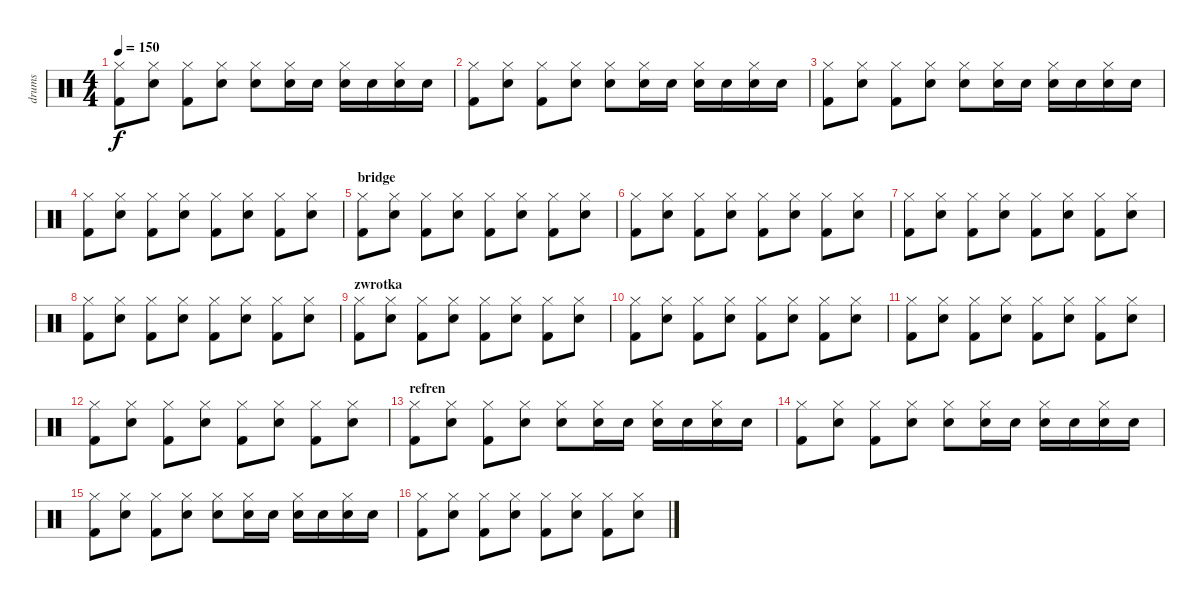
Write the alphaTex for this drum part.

\track ("drums" "drums") {instrument percussion}
\staff {score}
\articulation defaults
\ts (4 4)
\tempo 150
\clef neutral
\ks c
("Hi-Hat (closed)" "Kick (hit) 2").8{dy f} ("Hi-Hat (closed)" "Snare (hit) 2").8 ("Hi-Hat (closed)" "Kick (hit) 2").8 ("Hi-Hat (closed)" "Snare (hit) 2").8 ("Hi-Hat (closed)" "Snare (hit) 2").8 ("Hi-Hat (closed)" "Snare (hit) 2").16 "Snare (hit) 2".16 ("Hi-Hat (closed)" "Snare (hit) 2").16 "Snare (hit) 2".16 ("Hi-Hat (closed)" "Snare (hit) 2").16 "Snare (hit) 2".16 |
("Hi-Hat (closed)" "Kick (hit) 2").8 ("Hi-Hat (closed)" "Snare (hit) 2").8 ("Hi-Hat (closed)" "Kick (hit) 2").8 ("Hi-Hat (closed)" "Snare (hit) 2").8 ("Hi-Hat (closed)" "Snare (hit) 2").8 ("Hi-Hat (closed)" "Snare (hit) 2").16 "Snare (hit) 2".16 ("Hi-Hat (closed)" "Snare (hit) 2").16 "Snare (hit) 2".16 ("Hi-Hat (closed)" "Snare (hit) 2").16 "Snare (hit) 2".16 |
("Hi-Hat (closed)" "Kick (hit) 2").8 ("Hi-Hat (closed)" "Snare (hit) 2").8 ("Hi-Hat (closed)" "Kick (hit) 2").8 ("Hi-Hat (closed)" "Snare (hit) 2").8 ("Hi-Hat (closed)" "Snare (hit) 2").8 ("Hi-Hat (closed)" "Snare (hit) 2").16 "Snare (hit) 2".16 ("Hi-Hat (closed)" "Snare (hit) 2").16 "Snare (hit) 2".16 ("Hi-Hat (closed)" "Snare (hit) 2").16 "Snare (hit) 2".16 |
("Hi-Hat (closed)" "Kick (hit) 2").8 ("Hi-Hat (closed)" "Snare (hit) 2").8 ("Hi-Hat (closed)" "Kick (hit) 2").8 ("Hi-Hat (closed)" "Snare (hit) 2").8 ("Hi-Hat (closed)" "Kick (hit) 2").8 ("Hi-Hat (closed)" "Snare (hit) 2").8 ("Hi-Hat (closed)" "Kick (hit) 2").8 ("Hi-Hat (closed)" "Snare (hit) 2").8 |
\section ("" "bridge")
("Hi-Hat (closed)" "Kick (hit) 2").8 ("Hi-Hat (closed)" "Snare (hit) 2").8 ("Hi-Hat (closed)" "Kick (hit) 2").8 ("Hi-Hat (closed)" "Snare (hit) 2").8 ("Hi-Hat (closed)" "Kick (hit) 2").8 ("Hi-Hat (closed)" "Snare (hit) 2").8 ("Hi-Hat (closed)" "Kick (hit) 2").8 ("Hi-Hat (closed)" "Snare (hit) 2").8 |
("Hi-Hat (closed)" "Kick (hit) 2").8 ("Hi-Hat (closed)" "Snare (hit) 2").8 ("Hi-Hat (closed)" "Kick (hit) 2").8 ("Hi-Hat (closed)" "Snare (hit) 2").8 ("Hi-Hat (closed)" "Kick (hit) 2").8 ("Hi-Hat (closed)" "Snare (hit) 2").8 ("Hi-Hat (closed)" "Kick (hit) 2").8 ("Hi-Hat (closed)" "Snare (hit) 2").8 |
("Hi-Hat (closed)" "Kick (hit) 2").8 ("Hi-Hat (closed)" "Snare (hit) 2").8 ("Hi-Hat (closed)" "Kick (hit) 2").8 ("Hi-Hat (closed)" "Snare (hit) 2").8 ("Hi-Hat (closed)" "Kick (hit) 2").8 ("Hi-Hat (closed)" "Snare (hit) 2").8 ("Hi-Hat (closed)" "Kick (hit) 2").8 ("Hi-Hat (closed)" "Snare (hit) 2").8 |
("Hi-Hat (closed)" "Kick (hit) 2").8 ("Hi-Hat (closed)" "Snare (hit) 2").8 ("Hi-Hat (closed)" "Kick (hit) 2").8 ("Hi-Hat (closed)" "Snare (hit) 2").8 ("Hi-Hat (closed)" "Kick (hit) 2").8 ("Hi-Hat (closed)" "Snare (hit) 2").8 ("Hi-Hat (closed)" "Kick (hit) 2").8 ("Hi-Hat (closed)" "Snare (hit) 2").8 |
\section ("" "zwrotka")
("Hi-Hat (closed)" "Kick (hit) 2").8 ("Hi-Hat (closed)" "Snare (hit) 2").8 ("Hi-Hat (closed)" "Kick (hit) 2").8 ("Hi-Hat (closed)" "Snare (hit) 2").8 ("Hi-Hat (closed)" "Kick (hit) 2").8 ("Hi-Hat (closed)" "Snare (hit) 2").8 ("Hi-Hat (closed)" "Kick (hit) 2").8 ("Hi-Hat (closed)" "Snare (hit) 2").8 |
("Hi-Hat (closed)" "Kick (hit) 2").8 ("Hi-Hat (closed)" "Snare (hit) 2").8 ("Hi-Hat (closed)" "Kick (hit) 2").8 ("Hi-Hat (closed)" "Snare (hit) 2").8 ("Hi-Hat (closed)" "Kick (hit) 2").8 ("Hi-Hat (closed)" "Snare (hit) 2").8 ("Hi-Hat (closed)" "Kick (hit) 2").8 ("Hi-Hat (closed)" "Snare (hit) 2").8 |
("Hi-Hat (closed)" "Kick (hit) 2").8 ("Hi-Hat (closed)" "Snare (hit) 2").8 ("Hi-Hat (closed)" "Kick (hit) 2").8 ("Hi-Hat (closed)" "Snare (hit) 2").8 ("Hi-Hat (closed)" "Kick (hit) 2").8 ("Hi-Hat (closed)" "Snare (hit) 2").8 ("Hi-Hat (closed)" "Kick (hit) 2").8 ("Hi-Hat (closed)" "Snare (hit) 2").8 |
("Hi-Hat (closed)" "Kick (hit) 2").8 ("Hi-Hat (closed)" "Snare (hit) 2").8 ("Hi-Hat (closed)" "Kick (hit) 2").8 ("Hi-Hat (closed)" "Snare (hit) 2").8 ("Hi-Hat (closed)" "Kick (hit) 2").8 ("Hi-Hat (closed)" "Snare (hit) 2").8 ("Hi-Hat (closed)" "Kick (hit) 2").8 ("Hi-Hat (closed)" "Snare (hit) 2").8 |
\section ("" "refren")
("Hi-Hat (closed)" "Kick (hit) 2").8 ("Hi-Hat (closed)" "Snare (hit) 2").8 ("Hi-Hat (closed)" "Kick (hit) 2").8 ("Hi-Hat (closed)" "Snare (hit) 2").8 ("Hi-Hat (closed)" "Snare (hit) 2").8 ("Hi-Hat (closed)" "Snare (hit) 2").16 "Snare (hit) 2".16 ("Hi-Hat (closed)" "Snare (hit) 2").16 "Snare (hit) 2".16 ("Hi-Hat (closed)" "Snare (hit) 2").16 "Snare (hit) 2".16 |
("Hi-Hat (closed)" "Kick (hit) 2").8 ("Hi-Hat (closed)" "Snare (hit) 2").8 ("Hi-Hat (closed)" "Kick (hit) 2").8 ("Hi-Hat (closed)" "Snare (hit) 2").8 ("Hi-Hat (closed)" "Snare (hit) 2").8 ("Hi-Hat (closed)" "Snare (hit) 2").16 "Snare (hit) 2".16 ("Hi-Hat (closed)" "Snare (hit) 2").16 "Snare (hit) 2".16 ("Hi-Hat (closed)" "Snare (hit) 2").16 "Snare (hit) 2".16 |
("Hi-Hat (closed)" "Kick (hit) 2").8 ("Hi-Hat (closed)" "Snare (hit) 2").8 ("Hi-Hat (closed)" "Kick (hit) 2").8 ("Hi-Hat (closed)" "Snare (hit) 2").8 ("Hi-Hat (closed)" "Snare (hit) 2").8 ("Hi-Hat (closed)" "Snare (hit) 2").16 "Snare (hit) 2".16 ("Hi-Hat (closed)" "Snare (hit) 2").16 "Snare (hit) 2".16 ("Hi-Hat (closed)" "Snare (hit) 2").16 "Snare (hit) 2".16 |
("Hi-Hat (closed)" "Kick (hit) 2").8 ("Hi-Hat (closed)" "Snare (hit) 2").8 ("Hi-Hat (closed)" "Kick (hit) 2").8 ("Hi-Hat (closed)" "Snare (hit) 2").8 ("Hi-Hat (closed)" "Kick (hit) 2").8 ("Hi-Hat (closed)" "Snare (hit) 2").8 ("Hi-Hat (closed)" "Kick (hit) 2").8 ("Hi-Hat (closed)" "Snare (hit) 2").8
